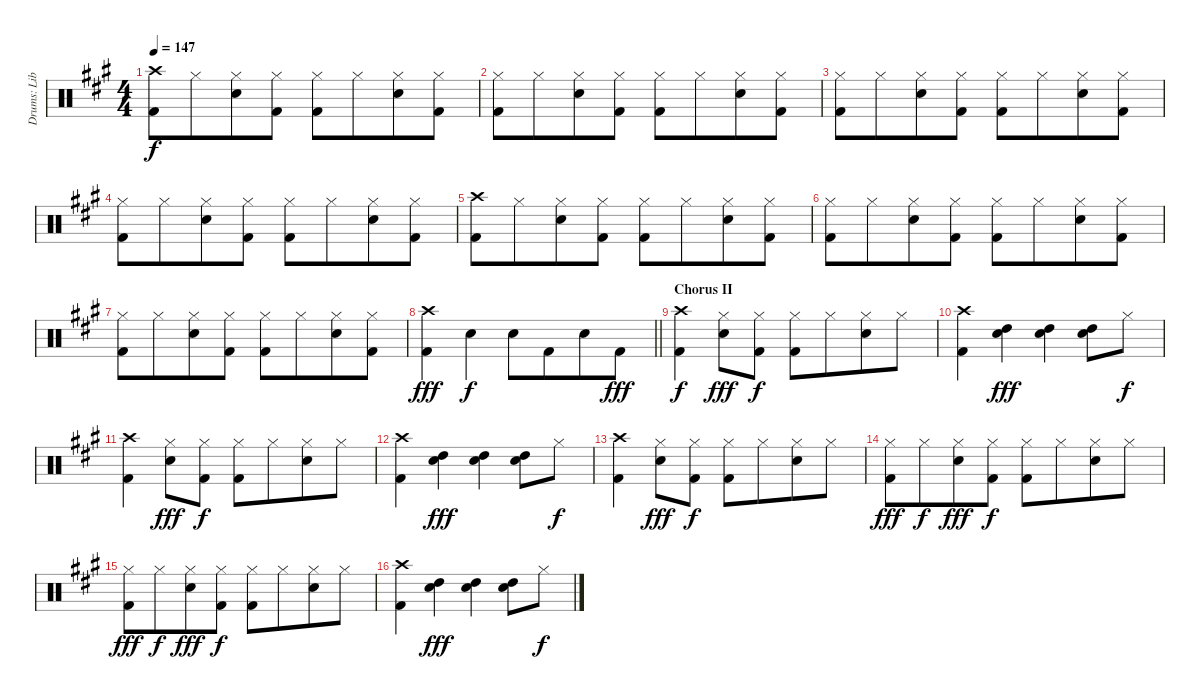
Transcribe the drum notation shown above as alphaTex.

\track ("Drums: Liberty" "Drums: Lib") {instrument percussion}
\staff {score}
\articulation defaults
\ts (4 4)
\tempo 147
\clef neutral
\ks a
("Crash high (hit)" "Kick (hit) 2").8{dy f} "Hi-Hat (closed)".8{beam merge} ("Hi-Hat (closed)" "Electric Snare (hit)").8 ("Hi-Hat (closed)" "Kick (hit) 2").8 ("Hi-Hat (closed)" "Kick (hit) 2").8 "Hi-Hat (closed)".8{beam merge} ("Hi-Hat (closed)" "Electric Snare (hit)").8 ("Hi-Hat (closed)" "Kick (hit) 2").8 |
("Hi-Hat (closed)" "Kick (hit) 2").8 "Hi-Hat (closed)".8{beam merge} ("Hi-Hat (closed)" "Electric Snare (hit)").8 ("Hi-Hat (closed)" "Kick (hit) 2").8 ("Hi-Hat (closed)" "Kick (hit) 2").8 "Hi-Hat (closed)".8{beam merge} ("Hi-Hat (closed)" "Electric Snare (hit)").8 ("Hi-Hat (closed)" "Kick (hit) 2").8 |
("Hi-Hat (closed)" "Kick (hit) 2").8 "Hi-Hat (closed)".8{beam merge} ("Hi-Hat (closed)" "Electric Snare (hit)").8 ("Hi-Hat (closed)" "Kick (hit) 2").8 ("Hi-Hat (closed)" "Kick (hit) 2").8 "Hi-Hat (closed)".8{beam merge} ("Hi-Hat (closed)" "Electric Snare (hit)").8 ("Hi-Hat (closed)" "Kick (hit) 2").8 |
("Hi-Hat (closed)" "Kick (hit) 2").8 "Hi-Hat (closed)".8{beam merge} ("Hi-Hat (closed)" "Electric Snare (hit)").8 ("Hi-Hat (closed)" "Kick (hit) 2").8 ("Hi-Hat (closed)" "Kick (hit) 2").8 "Hi-Hat (closed)".8{beam merge} ("Hi-Hat (closed)" "Electric Snare (hit)").8 ("Hi-Hat (closed)" "Kick (hit) 2").8 |
("Crash high (hit)" "Kick (hit) 2").8 "Hi-Hat (closed)".8{beam merge} ("Hi-Hat (closed)" "Electric Snare (hit)").8 ("Hi-Hat (closed)" "Kick (hit) 2").8 ("Hi-Hat (closed)" "Kick (hit) 2").8 "Hi-Hat (closed)".8{beam merge} ("Hi-Hat (closed)" "Electric Snare (hit)").8 ("Hi-Hat (closed)" "Kick (hit) 2").8 |
("Hi-Hat (closed)" "Kick (hit) 2").8 "Hi-Hat (closed)".8{beam merge} ("Hi-Hat (closed)" "Electric Snare (hit)").8 ("Hi-Hat (closed)" "Kick (hit) 2").8 ("Hi-Hat (closed)" "Kick (hit) 2").8 "Hi-Hat (closed)".8{beam merge} ("Hi-Hat (closed)" "Electric Snare (hit)").8 ("Hi-Hat (closed)" "Kick (hit) 2").8 |
("Hi-Hat (closed)" "Kick (hit) 2").8 "Hi-Hat (closed)".8{beam merge} ("Hi-Hat (closed)" "Electric Snare (hit)").8 ("Hi-Hat (closed)" "Kick (hit) 2").8 ("Hi-Hat (closed)" "Kick (hit) 2").8 "Hi-Hat (closed)".8{beam merge} ("Hi-Hat (closed)" "Electric Snare (hit)").8 ("Hi-Hat (closed)" "Kick (hit) 2").8 |
\barLineRight lightlight
("Crash high (hit)" "Kick (hit) 2").4{dy fff beam merge} "Electric Snare (hit)".4{dy f beam merge} "Electric Snare (hit)".8 "Kick (hit) 2".8{beam merge} "Electric Snare (hit)".8 "Kick (hit) 2".8{dy fff} |
\section ("" "Chorus II")
("Crash high (hit)" "Kick (hit) 2").4{dy f} ("Hi-Hat (closed)" "Electric Snare (hit)").8{dy fff} ("Hi-Hat (closed)" "Kick (hit) 2").8{dy f} ("Hi-Hat (closed)" "Kick (hit) 2").8 "Hi-Hat (closed)".8{beam merge} ("Hi-Hat (closed)" "Electric Snare (hit)").8 "Hi-Hat (closed)".8 |
("Crash high (hit)" "Kick (hit) 2").4 ("Electric Snare (hit)" "High Tom (hit)").4{dy fff} ("Electric Snare (hit)" "High Tom (hit)").4 ("Electric Snare (hit)" "High Tom (hit)").8 "Hi-Hat (closed)".8{dy f} |
("Crash high (hit)" "Kick (hit) 2").4 ("Hi-Hat (closed)" "Electric Snare (hit)").8{dy fff} ("Hi-Hat (closed)" "Kick (hit) 2").8{dy f} ("Hi-Hat (closed)" "Kick (hit) 2").8 "Hi-Hat (closed)".8{beam merge} ("Hi-Hat (closed)" "Electric Snare (hit)").8 "Hi-Hat (closed)".8 |
("Crash high (hit)" "Kick (hit) 2").4 ("Electric Snare (hit)" "High Tom (hit)").4{dy fff} ("Electric Snare (hit)" "High Tom (hit)").4 ("Electric Snare (hit)" "High Tom (hit)").8 "Hi-Hat (closed)".8{dy f} |
("Crash high (hit)" "Kick (hit) 2").4 ("Hi-Hat (closed)" "Electric Snare (hit)").8{dy fff} ("Hi-Hat (closed)" "Kick (hit) 2").8{dy f} ("Hi-Hat (closed)" "Kick (hit) 2").8 "Hi-Hat (closed)".8{beam merge} ("Hi-Hat (closed)" "Electric Snare (hit)").8 "Hi-Hat (closed)".8 |
("Hi-Hat (closed)" "Kick (hit) 2").8{dy fff} "Hi-Hat (closed)".8{dy f beam merge} ("Hi-Hat (closed)" "Electric Snare (hit)").8{dy fff} ("Hi-Hat (closed)" "Kick (hit) 2").8{dy f} ("Hi-Hat (closed)" "Kick (hit) 2").8 "Hi-Hat (closed)".8{beam merge} ("Hi-Hat (closed)" "Electric Snare (hit)").8 "Hi-Hat (closed)".8 |
("Hi-Hat (closed)" "Kick (hit) 2").8{dy fff} "Hi-Hat (closed)".8{dy f beam merge} ("Hi-Hat (closed)" "Electric Snare (hit)").8{dy fff} ("Hi-Hat (closed)" "Kick (hit) 2").8{dy f} ("Hi-Hat (closed)" "Kick (hit) 2").8 "Hi-Hat (closed)".8{beam merge} ("Hi-Hat (closed)" "Electric Snare (hit)").8 "Hi-Hat (closed)".8 |
("Crash high (hit)" "Kick (hit) 2").4 ("Electric Snare (hit)" "High Tom (hit)").4{dy fff} ("Electric Snare (hit)" "High Tom (hit)").4 ("Electric Snare (hit)" "High Tom (hit)").8 "Hi-Hat (closed)".8{dy f}
